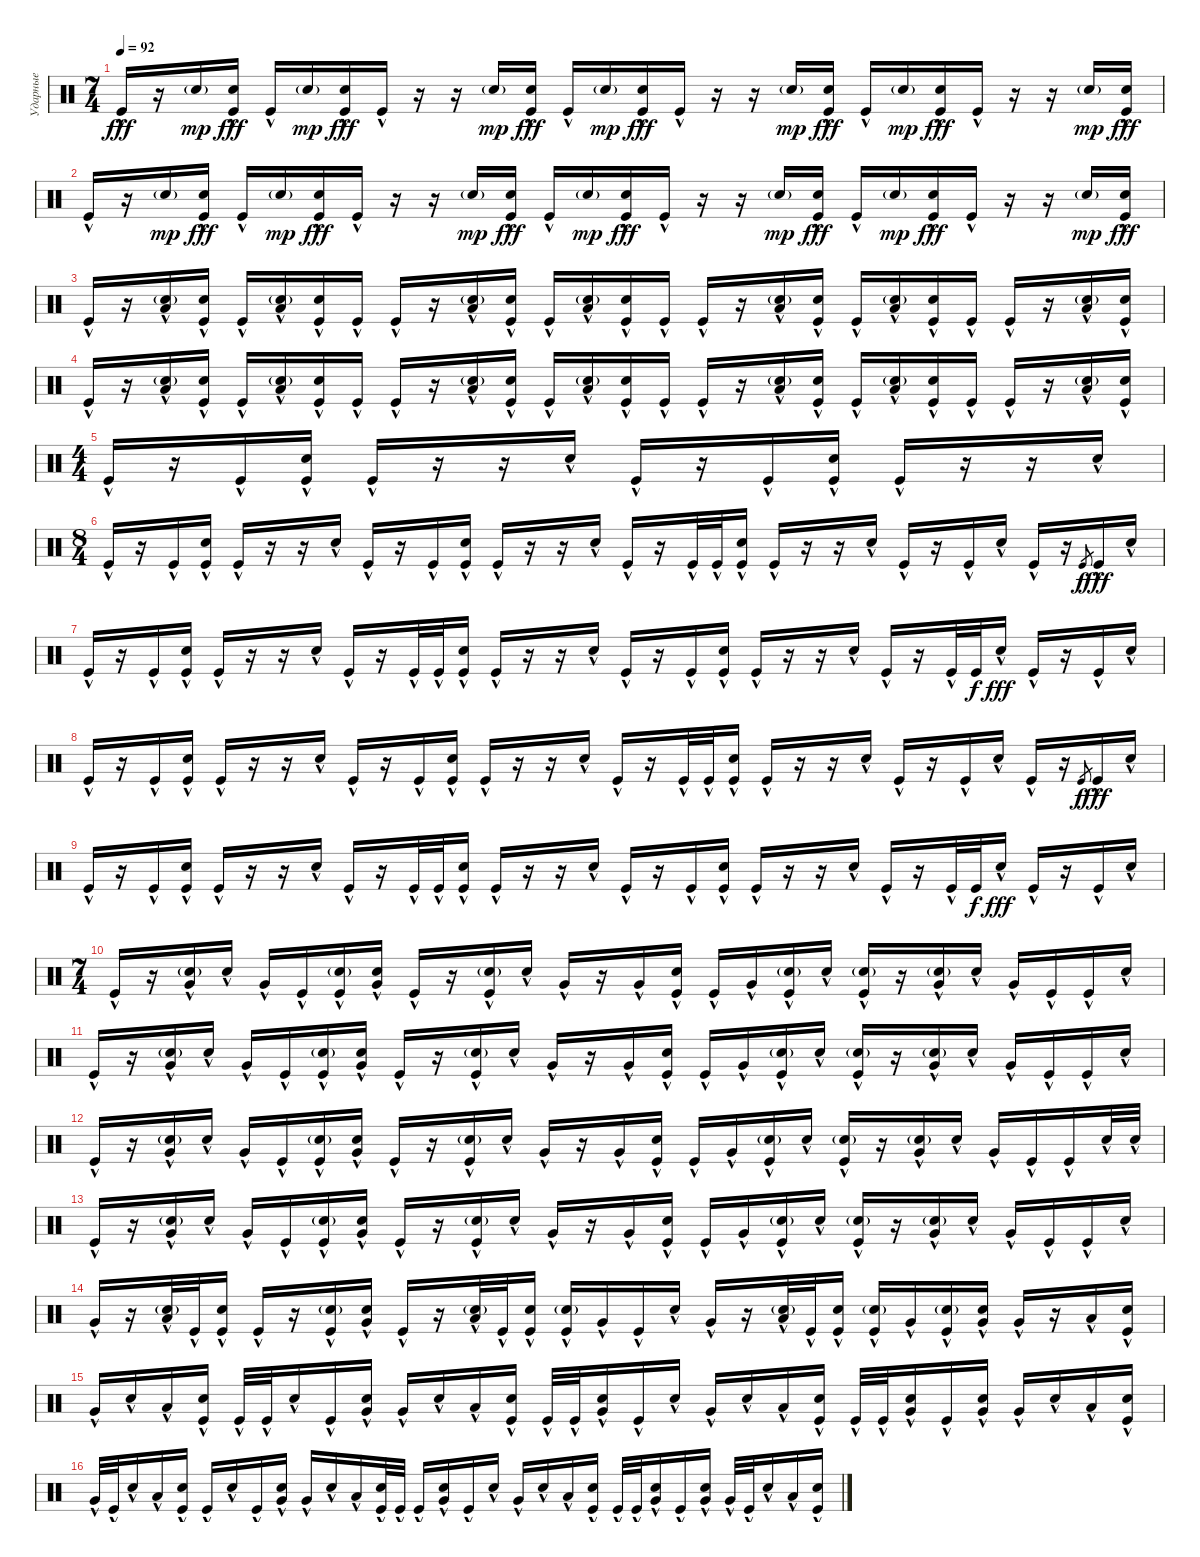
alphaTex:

\track ("Ударные" "Ударные") {instrument percussion}
\staff {score}
\articulation defaults
\ts (7 4)
\tempo 92
\clef neutral
\ks c "Kick (hit)"{hac}.16{dy fff}
r.16 "Electric Snare (hit)"{g}.16{dy mp} ("Electric Snare (hit)"{hac} "Kick (hit)"{hac}).16{dy fff} "Kick (hit)"{hac}.16 "Electric Snare (hit)"{g}.16{dy mp} ("Electric Snare (hit)"{hac} "Kick (hit)"{hac}).16{dy fff} "Kick (hit)"{hac}.16 r.16 r.16 "Electric Snare (hit)"{g}.16{dy mp} ("Electric Snare (hit)"{hac} "Kick (hit)"{hac}).16{dy fff} "Kick (hit)"{hac}.16 "Electric Snare (hit)"{g}.16{dy mp} ("Electric Snare (hit)"{hac} "Kick (hit)"{hac}).16{dy fff} "Kick (hit)"{hac}.16 r.16 r.16 "Electric Snare (hit)"{g}.16{dy mp} ("Electric Snare (hit)"{hac} "Kick (hit)"{hac}).16{dy fff} "Kick (hit)"{hac}.16 "Electric Snare (hit)"{g}.16{dy mp} ("Electric Snare (hit)"{hac} "Kick (hit)"{hac}).16{dy fff} "Kick (hit)"{hac}.16 r.16 r.16 "Electric Snare (hit)"{g}.16{dy mp} ("Electric Snare (hit)"{hac} "Kick (hit)"{hac}).16{dy fff} |
"Kick (hit)"{hac}.16 r.16 "Electric Snare (hit)"{g}.16{dy mp} ("Electric Snare (hit)"{hac} "Kick (hit)"{hac}).16{dy fff} "Kick (hit)"{hac}.16 "Electric Snare (hit)"{g}.16{dy mp} ("Electric Snare (hit)"{hac} "Kick (hit)"{hac}).16{dy fff} "Kick (hit)"{hac}.16 r.16 r.16 "Electric Snare (hit)"{g}.16{dy mp} ("Electric Snare (hit)"{hac} "Kick (hit)"{hac}).16{dy fff} "Kick (hit)"{hac}.16 "Electric Snare (hit)"{g}.16{dy mp} ("Electric Snare (hit)"{hac} "Kick (hit)"{hac}).16{dy fff} "Kick (hit)"{hac}.16 r.16 r.16 "Electric Snare (hit)"{g}.16{dy mp} ("Electric Snare (hit)"{hac} "Kick (hit)"{hac}).16{dy fff} "Kick (hit)"{hac}.16 "Electric Snare (hit)"{g}.16{dy mp} ("Electric Snare (hit)"{hac} "Kick (hit)"{hac}).16{dy fff} "Kick (hit)"{hac}.16 r.16 r.16 "Electric Snare (hit)"{g}.16{dy mp} ("Electric Snare (hit)"{hac} "Kick (hit)"{hac}).16{dy fff} |
"Kick (hit)"{hac}.16 r.16 ("Electric Snare (hit)"{g} "Low Tom (hit)"{hac}).16 ("Electric Snare (hit)"{hac} "Kick (hit)"{hac}).16 "Kick (hit)"{hac}.16 ("Electric Snare (hit)"{g} "Low Tom (hit)"{hac}).16 ("Electric Snare (hit)"{hac} "Kick (hit)"{hac}).16 "Kick (hit)"{hac}.16 "Kick (hit)"{hac}.16 r.16 ("Electric Snare (hit)"{g} "Low Tom (hit)"{hac}).16 ("Electric Snare (hit)"{hac} "Kick (hit)"{hac}).16 "Kick (hit)"{hac}.16 ("Electric Snare (hit)"{g} "Low Tom (hit)"{hac}).16 ("Electric Snare (hit)"{hac} "Kick (hit)"{hac}).16 "Kick (hit)"{hac}.16 "Kick (hit)"{hac}.16 r.16 ("Electric Snare (hit)"{g} "Low Tom (hit)"{hac}).16 ("Electric Snare (hit)"{hac} "Kick (hit)"{hac}).16 "Kick (hit)"{hac}.16 ("Electric Snare (hit)"{g} "Low Tom (hit)"{hac}).16 ("Electric Snare (hit)"{hac} "Kick (hit)"{hac}).16 "Kick (hit)"{hac}.16 "Kick (hit)"{hac}.16 r.16 ("Electric Snare (hit)"{g} "Low Tom (hit)"{hac}).16 ("Electric Snare (hit)"{hac} "Kick (hit)"{hac}).16 |
"Kick (hit)"{hac}.16 r.16 ("Electric Snare (hit)"{g} "Low Tom (hit)"{hac}).16 ("Electric Snare (hit)"{hac} "Kick (hit)"{hac}).16 "Kick (hit)"{hac}.16 ("Electric Snare (hit)"{g} "Low Tom (hit)"{hac}).16 ("Electric Snare (hit)"{hac} "Kick (hit)"{hac}).16 "Kick (hit)"{hac}.16 "Kick (hit)"{hac}.16 r.16 ("Electric Snare (hit)"{g} "Low Tom (hit)"{hac}).16 ("Electric Snare (hit)"{hac} "Kick (hit)"{hac}).16 "Kick (hit)"{hac}.16 ("Electric Snare (hit)"{g} "Low Tom (hit)"{hac}).16 ("Electric Snare (hit)"{hac} "Kick (hit)"{hac}).16 "Kick (hit)"{hac}.16 "Kick (hit)"{hac}.16 r.16 ("Electric Snare (hit)"{g} "Low Tom (hit)"{hac}).16 ("Electric Snare (hit)"{hac} "Kick (hit)"{hac}).16 "Kick (hit)"{hac}.16 ("Electric Snare (hit)"{g} "Low Tom (hit)"{hac}).16 ("Electric Snare (hit)"{hac} "Kick (hit)"{hac}).16 "Kick (hit)"{hac}.16 "Kick (hit)"{hac}.16 r.16 ("Electric Snare (hit)"{g} "Low Tom (hit)"{hac}).16 ("Electric Snare (hit)"{hac} "Kick (hit)"{hac}).16 |
\ts (4 4)
"Kick (hit)"{hac}.16 r.16 "Kick (hit)"{hac}.16 ("Electric Snare (hit)"{hac} "Kick (hit)"{hac}).16 "Kick (hit)"{hac}.16 r.16 r.16 "Electric Snare (hit)"{hac}.16 "Kick (hit)"{hac}.16 r.16 "Kick (hit)"{hac}.16 ("Electric Snare (hit)"{hac} "Kick (hit)"{hac}).16 "Kick (hit)"{hac}.16 r.16 r.16 "Electric Snare (hit)"{hac}.16 |
\ts (8 4)
"Kick (hit)"{hac}.16 r.16 "Kick (hit)"{hac}.16 ("Electric Snare (hit)"{hac} "Kick (hit)"{hac}).16 "Kick (hit)"{hac}.16 r.16 r.16 "Electric Snare (hit)"{hac}.16 "Kick (hit)"{hac}.16 r.16 "Kick (hit)"{hac}.16 ("Electric Snare (hit)"{hac} "Kick (hit)"{hac}).16 "Kick (hit)"{hac}.16 r.16 r.16 "Electric Snare (hit)"{hac}.16 "Kick (hit)"{hac}.16 r.16 "Kick (hit)"{hac}.32 "Kick (hit)"{hac}.32 ("Electric Snare (hit)"{hac} "Kick (hit)"{hac}).16 "Kick (hit)"{hac}.16 r.16 r.16 "Electric Snare (hit)"{hac}.16 "Kick (hit)"{hac}.16 r.16 "Kick (hit)"{hac}.16 "Electric Snare (hit)"{hac}.16 "Kick (hit)"{hac}.16 r.16 "Kick (hit)".8{gr dy f} "Kick (hit)"{hac}.16{dy fff} "Electric Snare (hit)"{hac}.16 |
"Kick (hit)"{hac}.16 r.16 "Kick (hit)"{hac}.16 ("Electric Snare (hit)"{hac} "Kick (hit)"{hac}).16 "Kick (hit)"{hac}.16 r.16 r.16 "Electric Snare (hit)"{hac}.16 "Kick (hit)"{hac}.16 r.16 "Kick (hit)"{hac}.32 "Kick (hit)"{hac}.32 ("Electric Snare (hit)"{hac} "Kick (hit)"{hac}).16 "Kick (hit)"{hac}.16 r.16 r.16 "Electric Snare (hit)"{hac}.16 "Kick (hit)"{hac}.16 r.16 "Kick (hit)"{hac}.16 ("Electric Snare (hit)"{hac} "Kick (hit)"{hac}).16 "Kick (hit)"{hac}.16 r.16 r.16 "Electric Snare (hit)"{hac}.16 "Kick (hit)"{hac}.16 r.16 "Kick (hit)"{hac}.32 "Kick (hit)".32{dy f} "Electric Snare (hit)"{hac}.16{dy fff} "Kick (hit)"{hac}.16 r.16 "Kick (hit)"{hac}.16 "Electric Snare (hit)"{hac}.16 |
"Kick (hit)"{hac}.16 r.16 "Kick (hit)"{hac}.16 ("Electric Snare (hit)"{hac} "Kick (hit)"{hac}).16 "Kick (hit)"{hac}.16 r.16 r.16 "Electric Snare (hit)"{hac}.16 "Kick (hit)"{hac}.16 r.16 "Kick (hit)"{hac}.16 ("Electric Snare (hit)"{hac} "Kick (hit)"{hac}).16 "Kick (hit)"{hac}.16 r.16 r.16 "Electric Snare (hit)"{hac}.16 "Kick (hit)"{hac}.16 r.16 "Kick (hit)"{hac}.32 "Kick (hit)"{hac}.32 ("Electric Snare (hit)"{hac} "Kick (hit)"{hac}).16 "Kick (hit)"{hac}.16 r.16 r.16 "Electric Snare (hit)"{hac}.16 "Kick (hit)"{hac}.16 r.16 "Kick (hit)"{hac}.16 "Electric Snare (hit)"{hac}.16 "Kick (hit)"{hac}.16 r.16 "Kick (hit)".8{gr dy f} "Kick (hit)"{hac}.16{dy fff} "Electric Snare (hit)"{hac}.16 |
"Kick (hit)"{hac}.16 r.16 "Kick (hit)"{hac}.16 ("Electric Snare (hit)"{hac} "Kick (hit)"{hac}).16 "Kick (hit)"{hac}.16 r.16 r.16 "Electric Snare (hit)"{hac}.16 "Kick (hit)"{hac}.16 r.16 "Kick (hit)"{hac}.32 "Kick (hit)"{hac}.32 ("Electric Snare (hit)"{hac} "Kick (hit)"{hac}).16 "Kick (hit)"{hac}.16 r.16 r.16 "Electric Snare (hit)"{hac}.16 "Kick (hit)"{hac}.16 r.16 "Kick (hit)"{hac}.16 ("Electric Snare (hit)"{hac} "Kick (hit)"{hac}).16 "Kick (hit)"{hac}.16 r.16 r.16 "Electric Snare (hit)"{hac}.16 "Kick (hit)"{hac}.16 r.16 "Kick (hit)"{hac}.32 "Kick (hit)".32{dy f} "Electric Snare (hit)"{hac}.16{dy fff} "Kick (hit)"{hac}.16 r.16 "Kick (hit)"{hac}.16 "Electric Snare (hit)"{hac}.16 |
\ts (7 4)
"Kick (hit)"{hac}.16 r.16 ("Electric Snare (hit)"{g} "Very Low Tom (hit)"{hac}).16 "Electric Snare (hit)"{hac}.16 "Very Low Tom (hit)"{hac}.16 "Kick (hit)"{hac}.16 ("Electric Snare (hit)"{g} "Kick (hit)"{hac}).16 ("Electric Snare (hit)"{hac} "Very Low Tom (hit)"{hac}).16 "Kick (hit)"{hac}.16 r.16 ("Electric Snare (hit)"{g} "Kick (hit)"{hac}).16 "Electric Snare (hit)"{hac}.16 "Very Low Tom (hit)"{hac}.16 r.16 "Very Low Tom (hit)"{hac}.16 ("Electric Snare (hit)"{hac} "Kick (hit)"{hac}).16 "Kick (hit)"{hac}.16 "Very Low Tom (hit)"{hac}.16 ("Electric Snare (hit)"{g} "Kick (hit)"{hac}).16 "Electric Snare (hit)"{hac}.16 ("Electric Snare (hit)"{g} "Kick (hit)"{hac}).16 r.16 ("Electric Snare (hit)"{g} "Very Low Tom (hit)"{hac}).16 "Electric Snare (hit)"{hac}.16 "Very Low Tom (hit)"{hac}.16 "Kick (hit)"{hac}.16 "Kick (hit)"{hac}.16 "Electric Snare (hit)"{hac}.16 |
"Kick (hit)"{hac}.16 r.16 ("Electric Snare (hit)"{g} "Very Low Tom (hit)"{hac}).16 "Electric Snare (hit)"{hac}.16 "Very Low Tom (hit)"{hac}.16 "Kick (hit)"{hac}.16 ("Electric Snare (hit)"{g} "Kick (hit)"{hac}).16 ("Electric Snare (hit)"{hac} "Very Low Tom (hit)"{hac}).16 "Kick (hit)"{hac}.16 r.16 ("Electric Snare (hit)"{g} "Kick (hit)"{hac}).16 "Electric Snare (hit)"{hac}.16 "Very Low Tom (hit)"{hac}.16 r.16 "Very Low Tom (hit)"{hac}.16 ("Electric Snare (hit)"{hac} "Kick (hit)"{hac}).16 "Kick (hit)"{hac}.16 "Very Low Tom (hit)"{hac}.16 ("Electric Snare (hit)"{g} "Kick (hit)"{hac}).16 "Electric Snare (hit)"{hac}.16 ("Electric Snare (hit)"{g} "Kick (hit)"{hac}).16 r.16 ("Electric Snare (hit)"{g} "Very Low Tom (hit)"{hac}).16 "Electric Snare (hit)"{hac}.16 "Very Low Tom (hit)"{hac}.16 "Kick (hit)"{hac}.16 "Kick (hit)"{hac}.16 "Electric Snare (hit)"{hac}.16 |
"Kick (hit)"{hac}.16 r.16 ("Electric Snare (hit)"{g} "Very Low Tom (hit)"{hac}).16 "Electric Snare (hit)"{hac}.16 "Very Low Tom (hit)"{hac}.16 "Kick (hit)"{hac}.16 ("Electric Snare (hit)"{g} "Kick (hit)"{hac}).16 ("Electric Snare (hit)"{hac} "Very Low Tom (hit)"{hac}).16 "Kick (hit)"{hac}.16 r.16 ("Electric Snare (hit)"{g} "Kick (hit)"{hac}).16 "Electric Snare (hit)"{hac}.16 "Very Low Tom (hit)"{hac}.16 r.16 "Very Low Tom (hit)"{hac}.16 ("Electric Snare (hit)"{hac} "Kick (hit)"{hac}).16 "Kick (hit)"{hac}.16 "Very Low Tom (hit)"{hac}.16 ("Electric Snare (hit)"{g} "Kick (hit)"{hac}).16 "Electric Snare (hit)"{hac}.16 ("Electric Snare (hit)"{g} "Kick (hit)"{hac}).16 r.16 ("Electric Snare (hit)"{g} "Very Low Tom (hit)"{hac}).16 "Electric Snare (hit)"{hac}.16 "Very Low Tom (hit)"{hac}.16 "Kick (hit)"{hac}.16 "Kick (hit)"{hac}.16 "Electric Snare (hit)"{hac}.32 "Electric Snare (hit)"{hac}.32 |
"Kick (hit)"{hac}.16 r.16 ("Electric Snare (hit)"{g} "Very Low Tom (hit)"{hac}).16 "Electric Snare (hit)"{hac}.16 "Very Low Tom (hit)"{hac}.16 "Kick (hit)"{hac}.16 ("Electric Snare (hit)"{g} "Kick (hit)"{hac}).16 ("Electric Snare (hit)"{hac} "Very Low Tom (hit)"{hac}).16 "Kick (hit)"{hac}.16 r.16 ("Electric Snare (hit)"{g} "Kick (hit)"{hac}).16 "Electric Snare (hit)"{hac}.16 "Very Low Tom (hit)"{hac}.16 r.16 "Very Low Tom (hit)"{hac}.16 ("Electric Snare (hit)"{hac} "Kick (hit)"{hac}).16 "Kick (hit)"{hac}.16 "Very Low Tom (hit)"{hac}.16 ("Electric Snare (hit)"{g} "Kick (hit)"{hac}).16 "Electric Snare (hit)"{hac}.16 ("Electric Snare (hit)"{g} "Kick (hit)"{hac}).16 r.16 ("Electric Snare (hit)"{g} "Very Low Tom (hit)"{hac}).16 "Electric Snare (hit)"{hac}.16 "Very Low Tom (hit)"{hac}.16 "Kick (hit)"{hac}.16 "Kick (hit)"{hac}.16 "Electric Snare (hit)"{hac}.16 |
"Very Low Tom (hit)"{hac}.16 r.16 ("Electric Snare (hit)"{g} "Low Floor Tom (hit)"{hac}).32 "Kick (hit)"{hac}.32 ("Electric Snare (hit)"{hac} "Kick (hit)"{hac}).16 "Kick (hit)"{hac}.16 r.16 ("Electric Snare (hit)"{g} "Kick (hit)"{hac}).16 ("Electric Snare (hit)"{hac} "Very Low Tom (hit)"{hac}).16 "Kick (hit)"{hac}.16 r.16 ("Electric Snare (hit)"{g} "Low Floor Tom (hit)"{hac}).32 "Kick (hit)"{hac}.32 ("Electric Snare (hit)"{hac} "Kick (hit)"{hac}).16 ("Electric Snare (hit)"{g} "Kick (hit)"{hac}).16 "Very Low Tom (hit)"{hac}.16 "Kick (hit)"{hac}.16 "Electric Snare (hit)"{hac}.16 "Very Low Tom (hit)"{hac}.16 r.16 ("Electric Snare (hit)"{g} "Low Floor Tom (hit)"{hac}).32 "Kick (hit)"{hac}.32 ("Electric Snare (hit)"{hac} "Kick (hit)"{hac}).16 ("Electric Snare (hit)"{g} "Kick (hit)"{hac}).16 "Very Low Tom (hit)"{hac}.16 ("Electric Snare (hit)"{g} "Kick (hit)"{hac}).16 ("Electric Snare (hit)"{hac} "Very Low Tom (hit)"{hac}).16 "Very Low Tom (hit)"{hac}.16 r.16 "Low Floor Tom (hit)"{hac}.16 ("Electric Snare (hit)"{hac} "Kick (hit)"{hac}).16 |
"Very Low Tom (hit)"{hac}.16 "Electric Snare (hit)"{hac}.16 "Low Floor Tom (hit)"{hac}.16 ("Electric Snare (hit)"{hac} "Kick (hit)"{hac}).16 "Kick (hit)"{hac}.32 "Kick (hit)"{hac}.32 "Electric Snare (hit)"{hac}.16 "Kick (hit)"{hac}.16 ("Electric Snare (hit)"{hac} "Very Low Tom (hit)"{hac}).16 "Very Low Tom (hit)"{hac}.16 "Electric Snare (hit)"{hac}.16 "Low Floor Tom (hit)"{hac}.16 ("Electric Snare (hit)"{hac} "Kick (hit)"{hac}).16 "Kick (hit)"{hac}.32 "Kick (hit)"{hac}.32 ("Electric Snare (hit)"{hac} "Very Low Tom (hit)"{hac}).16 "Kick (hit)"{hac}.16 "Electric Snare (hit)"{hac}.16 "Very Low Tom (hit)"{hac}.16 "Electric Snare (hit)"{hac}.16 "Low Floor Tom (hit)"{hac}.16 ("Electric Snare (hit)"{hac} "Kick (hit)"{hac}).16 "Kick (hit)"{hac}.32 "Kick (hit)"{hac}.32 ("Electric Snare (hit)"{hac} "Very Low Tom (hit)"{hac}).16 "Kick (hit)"{hac}.16 ("Electric Snare (hit)"{hac} "Very Low Tom (hit)"{hac}).16 "Very Low Tom (hit)"{hac}.16 "Electric Snare (hit)"{hac}.16 "Low Floor Tom (hit)"{hac}.16 ("Electric Snare (hit)"{hac} "Kick (hit)"{hac}).16 |
"Very Low Tom (hit)"{hac}.32 "Kick (hit)"{hac}.32 "Electric Snare (hit)"{hac}.16 "Low Floor Tom (hit)"{hac}.16 ("Electric Snare (hit)"{hac} "Kick (hit)"{hac}).16 "Kick (hit)"{hac}.16 "Electric Snare (hit)"{hac}.16 "Kick (hit)"{hac}.16 ("Electric Snare (hit)"{hac} "Very Low Tom (hit)"{hac}).16 "Very Low Tom (hit)"{hac}.16 "Electric Snare (hit)"{hac}.16 "Low Floor Tom (hit)"{hac}.16 ("Electric Snare (hit)"{hac} "Kick (hit)"{hac}).32 "Kick (hit)"{hac}.32 "Kick (hit)"{hac}.16 ("Electric Snare (hit)"{hac} "Very Low Tom (hit)"{hac}).16 "Kick (hit)"{hac}.16 "Electric Snare (hit)"{hac}.16 "Very Low Tom (hit)"{hac}.16 "Electric Snare (hit)"{hac}.16 "Low Floor Tom (hit)"{hac}.16 ("Electric Snare (hit)"{hac} "Kick (hit)"{hac}).16 "Kick (hit)"{hac}.32 "Kick (hit)"{hac}.32 ("Electric Snare (hit)"{hac} "Very Low Tom (hit)"{hac}).16 "Kick (hit)"{hac}.16 ("Electric Snare (hit)"{hac} "Very Low Tom (hit)"{hac}).16 "Very Low Tom (hit)"{hac}.32 "Kick (hit)"{hac}.32 "Electric Snare (hit)"{hac}.16 "Low Floor Tom (hit)"{hac}.16 ("Electric Snare (hit)"{hac} "Kick (hit)"{hac}).16
